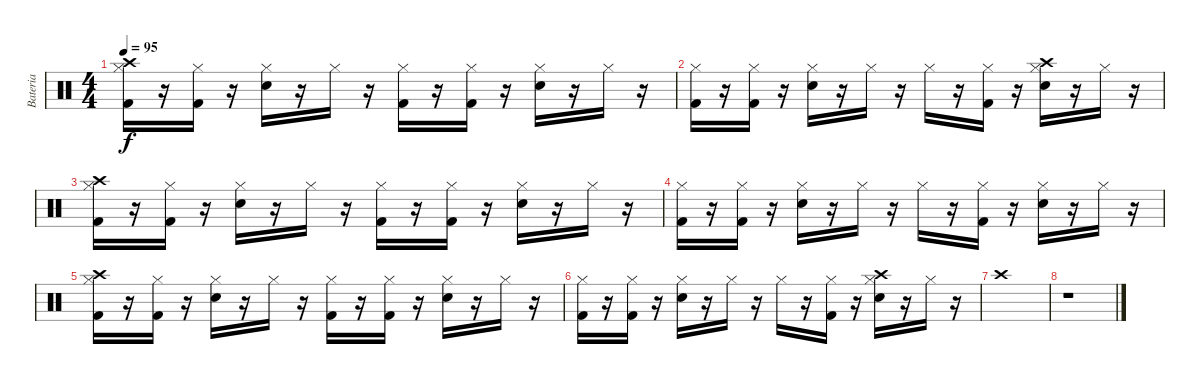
\track ("Bateria" "Bateria") {instrument percussion}
\staff {score}
\articulation defaults
\ts (4 4)
\tempo 95
\clef neutral
\ks c
("Crash high (hit)" "Hi-Hat (closed)" "Kick (hit) 2").16{dy f} r.16 ("Hi-Hat (closed)" "Kick (hit) 2").16 r.16 ("Hi-Hat (closed)" "Snare (hit) 2").16 r.16 "Hi-Hat (closed)".16 r.16 ("Hi-Hat (closed)" "Kick (hit) 2").16 r.16 ("Hi-Hat (closed)" "Kick (hit) 2").16 r.16 ("Hi-Hat (closed)" "Snare (hit) 2").16 r.16 "Hi-Hat (closed)".16 r.16 |
("Hi-Hat (closed)" "Kick (hit) 2").16 r.16 ("Hi-Hat (closed)" "Kick (hit) 2").16 r.16 ("Hi-Hat (closed)" "Snare (hit) 2").16 r.16 "Hi-Hat (closed)".16 r.16 "Hi-Hat (closed)".16 r.16 ("Hi-Hat (closed)" "Kick (hit) 2").16 r.16 ("Crash high (hit)" "Hi-Hat (closed)" "Snare (hit) 2").16 r.16 "Hi-Hat (closed)".16 r.16 |
("Crash high (hit)" "Hi-Hat (closed)" "Kick (hit) 2").16 r.16 ("Hi-Hat (closed)" "Kick (hit) 2").16 r.16 ("Hi-Hat (closed)" "Snare (hit) 2").16 r.16 "Hi-Hat (closed)".16 r.16 ("Hi-Hat (closed)" "Kick (hit) 2").16 r.16 ("Hi-Hat (closed)" "Kick (hit) 2").16 r.16 ("Hi-Hat (closed)" "Snare (hit) 2").16 r.16 "Hi-Hat (closed)".16 r.16 |
("Hi-Hat (closed)" "Kick (hit) 2").16 r.16 ("Hi-Hat (closed)" "Kick (hit) 2").16 r.16 ("Hi-Hat (closed)" "Snare (hit) 2").16 r.16 "Hi-Hat (closed)".16 r.16 "Hi-Hat (closed)".16 r.16 ("Hi-Hat (closed)" "Kick (hit) 2").16 r.16 ("Hi-Hat (closed)" "Snare (hit) 2").16 r.16 "Hi-Hat (closed)".16 r.16 |
("Crash high (hit)" "Hi-Hat (closed)" "Kick (hit) 2").16 r.16 ("Hi-Hat (closed)" "Kick (hit) 2").16 r.16 ("Hi-Hat (closed)" "Snare (hit) 2").16 r.16 "Hi-Hat (closed)".16 r.16 ("Hi-Hat (closed)" "Kick (hit) 2").16 r.16 ("Hi-Hat (closed)" "Kick (hit) 2").16 r.16 ("Hi-Hat (closed)" "Snare (hit) 2").16 r.16 "Hi-Hat (closed)".16 r.16 |
("Hi-Hat (closed)" "Kick (hit) 2").16 r.16 ("Hi-Hat (closed)" "Kick (hit) 2").16 r.16 ("Hi-Hat (closed)" "Snare (hit) 2").16 r.16 "Hi-Hat (closed)".16 r.16 "Hi-Hat (closed)".16 r.16 ("Hi-Hat (closed)" "Kick (hit) 2").16 r.16 ("Crash high (hit)" "Hi-Hat (closed)" "Snare (hit) 2").16 r.16 "Hi-Hat (closed)".16 r.16 |
"Crash high (hit)".1 |
r.1
